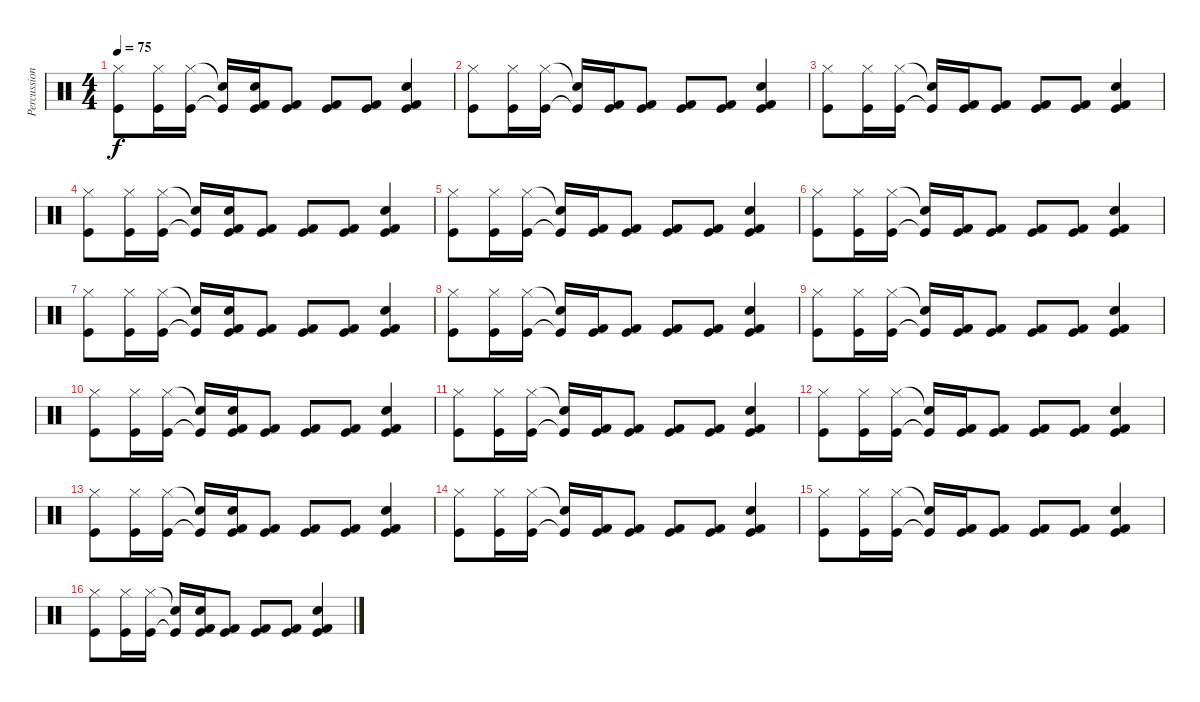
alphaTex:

\track ("Percussion" "Percussion") {instrument percussion}
\staff {score}
\articulation defaults
\ts (4 4)
\tempo 75
\clef neutral
\ks c
("Kick (hit)" "Hi-Hat (closed)").8{dy f} ("Kick (hit)" "Hi-Hat (closed)").16 ("Kick (hit)" "Hi-Hat (closed)").16 ("Kick (hit)"{t} "Snare (hit) 2"{t}).16 ("Kick (hit)" "Kick (hit) 2" "Snare (hit) 2").16 ("Kick (hit)" "Kick (hit) 2").8 ("Kick (hit)" "Kick (hit) 2").8 ("Kick (hit)" "Kick (hit) 2").8 ("Kick (hit)" "Kick (hit) 2" "Snare (hit) 2").4 |
("Kick (hit)" "Hi-Hat (closed)").8 ("Kick (hit)" "Hi-Hat (closed)").16 ("Kick (hit)" "Hi-Hat (closed)").16 ("Kick (hit)"{t} "Snare (hit) 2"{t}).16 ("Kick (hit)" "Kick (hit) 2").16 ("Kick (hit)" "Kick (hit) 2").8 ("Kick (hit)" "Kick (hit) 2").8 ("Kick (hit)" "Kick (hit) 2").8 ("Kick (hit)" "Kick (hit) 2" "Snare (hit) 2").4 |
("Kick (hit)" "Hi-Hat (closed)").8 ("Kick (hit)" "Hi-Hat (closed)").16 ("Kick (hit)" "Hi-Hat (closed)").16 ("Kick (hit)"{t} "Snare (hit) 2"{t}).16 ("Kick (hit)" "Kick (hit) 2").16 ("Kick (hit)" "Kick (hit) 2").8 ("Kick (hit)" "Kick (hit) 2").8 ("Kick (hit)" "Kick (hit) 2").8 ("Kick (hit)" "Kick (hit) 2" "Snare (hit) 2").4 |
("Kick (hit)" "Hi-Hat (closed)").8 ("Kick (hit)" "Hi-Hat (closed)").16 ("Kick (hit)" "Hi-Hat (closed)").16 ("Kick (hit)"{t} "Snare (hit) 2"{t}).16 ("Kick (hit)" "Kick (hit) 2" "Snare (hit) 2").16 ("Kick (hit)" "Kick (hit) 2").8 ("Kick (hit)" "Kick (hit) 2").8 ("Kick (hit)" "Kick (hit) 2").8 ("Kick (hit)" "Kick (hit) 2" "Snare (hit) 2").4 |
("Kick (hit)" "Hi-Hat (closed)").8 ("Kick (hit)" "Hi-Hat (closed)").16 ("Kick (hit)" "Hi-Hat (closed)").16 ("Kick (hit)"{t} "Snare (hit) 2"{t}).16 ("Kick (hit)" "Kick (hit) 2").16 ("Kick (hit)" "Kick (hit) 2").8 ("Kick (hit)" "Kick (hit) 2").8 ("Kick (hit)" "Kick (hit) 2").8 ("Kick (hit)" "Kick (hit) 2" "Snare (hit) 2").4 |
("Kick (hit)" "Hi-Hat (closed)").8 ("Kick (hit)" "Hi-Hat (closed)").16 ("Kick (hit)" "Hi-Hat (closed)").16 ("Kick (hit)"{t} "Snare (hit) 2"{t}).16 ("Kick (hit)" "Kick (hit) 2").16 ("Kick (hit)" "Kick (hit) 2").8 ("Kick (hit)" "Kick (hit) 2").8 ("Kick (hit)" "Kick (hit) 2").8 ("Kick (hit)" "Kick (hit) 2" "Snare (hit) 2").4 |
("Kick (hit)" "Hi-Hat (closed)").8 ("Kick (hit)" "Hi-Hat (closed)").16 ("Kick (hit)" "Hi-Hat (closed)").16 ("Kick (hit)"{t} "Snare (hit) 2"{t}).16 ("Kick (hit)" "Kick (hit) 2" "Snare (hit) 2").16 ("Kick (hit)" "Kick (hit) 2").8 ("Kick (hit)" "Kick (hit) 2").8 ("Kick (hit)" "Kick (hit) 2").8 ("Kick (hit)" "Kick (hit) 2" "Snare (hit) 2").4 |
("Kick (hit)" "Hi-Hat (closed)").8 ("Kick (hit)" "Hi-Hat (closed)").16 ("Kick (hit)" "Hi-Hat (closed)").16 ("Kick (hit)"{t} "Snare (hit) 2"{t}).16 ("Kick (hit)" "Kick (hit) 2").16 ("Kick (hit)" "Kick (hit) 2").8 ("Kick (hit)" "Kick (hit) 2").8 ("Kick (hit)" "Kick (hit) 2").8 ("Kick (hit)" "Kick (hit) 2" "Snare (hit) 2").4 |
("Kick (hit)" "Hi-Hat (closed)").8 ("Kick (hit)" "Hi-Hat (closed)").16 ("Kick (hit)" "Hi-Hat (closed)").16 ("Kick (hit)"{t} "Snare (hit) 2"{t}).16 ("Kick (hit)" "Kick (hit) 2").16 ("Kick (hit)" "Kick (hit) 2").8 ("Kick (hit)" "Kick (hit) 2").8 ("Kick (hit)" "Kick (hit) 2").8 ("Kick (hit)" "Kick (hit) 2" "Snare (hit) 2").4 |
("Kick (hit)" "Hi-Hat (closed)").8 ("Kick (hit)" "Hi-Hat (closed)").16 ("Kick (hit)" "Hi-Hat (closed)").16 ("Kick (hit)"{t} "Snare (hit) 2"{t}).16 ("Kick (hit)" "Kick (hit) 2" "Snare (hit) 2").16 ("Kick (hit)" "Kick (hit) 2").8 ("Kick (hit)" "Kick (hit) 2").8 ("Kick (hit)" "Kick (hit) 2").8 ("Kick (hit)" "Kick (hit) 2" "Snare (hit) 2").4 |
("Kick (hit)" "Hi-Hat (closed)").8 ("Kick (hit)" "Hi-Hat (closed)").16 ("Kick (hit)" "Hi-Hat (closed)").16 ("Kick (hit)"{t} "Snare (hit) 2"{t}).16 ("Kick (hit)" "Kick (hit) 2").16 ("Kick (hit)" "Kick (hit) 2").8 ("Kick (hit)" "Kick (hit) 2").8 ("Kick (hit)" "Kick (hit) 2").8 ("Kick (hit)" "Kick (hit) 2" "Snare (hit) 2").4 |
("Kick (hit)" "Hi-Hat (closed)").8 ("Kick (hit)" "Hi-Hat (closed)").16 ("Kick (hit)" "Hi-Hat (closed)").16 ("Kick (hit)"{t} "Snare (hit) 2"{t}).16 ("Kick (hit)" "Kick (hit) 2").16 ("Kick (hit)" "Kick (hit) 2").8 ("Kick (hit)" "Kick (hit) 2").8 ("Kick (hit)" "Kick (hit) 2").8 ("Kick (hit)" "Kick (hit) 2" "Snare (hit) 2").4 |
("Kick (hit)" "Hi-Hat (closed)").8 ("Kick (hit)" "Hi-Hat (closed)").16 ("Kick (hit)" "Hi-Hat (closed)").16 ("Kick (hit)"{t} "Snare (hit) 2"{t}).16 ("Kick (hit)" "Kick (hit) 2" "Snare (hit) 2").16 ("Kick (hit)" "Kick (hit) 2").8 ("Kick (hit)" "Kick (hit) 2").8 ("Kick (hit)" "Kick (hit) 2").8 ("Kick (hit)" "Kick (hit) 2" "Snare (hit) 2").4 |
("Kick (hit)" "Hi-Hat (closed)").8 ("Kick (hit)" "Hi-Hat (closed)").16 ("Kick (hit)" "Hi-Hat (closed)").16 ("Kick (hit)"{t} "Snare (hit) 2"{t}).16 ("Kick (hit)" "Kick (hit) 2").16 ("Kick (hit)" "Kick (hit) 2").8 ("Kick (hit)" "Kick (hit) 2").8 ("Kick (hit)" "Kick (hit) 2").8 ("Kick (hit)" "Kick (hit) 2" "Snare (hit) 2").4 |
("Kick (hit)" "Hi-Hat (closed)").8 ("Kick (hit)" "Hi-Hat (closed)").16 ("Kick (hit)" "Hi-Hat (closed)").16 ("Kick (hit)"{t} "Snare (hit) 2"{t}).16 ("Kick (hit)" "Kick (hit) 2").16 ("Kick (hit)" "Kick (hit) 2").8 ("Kick (hit)" "Kick (hit) 2").8 ("Kick (hit)" "Kick (hit) 2").8 ("Kick (hit)" "Kick (hit) 2" "Snare (hit) 2").4 |
("Kick (hit)" "Hi-Hat (closed)").8 ("Kick (hit)" "Hi-Hat (closed)").16 ("Kick (hit)" "Hi-Hat (closed)").16 ("Kick (hit)"{t} "Snare (hit) 2"{t}).16 ("Kick (hit)" "Kick (hit) 2" "Snare (hit) 2").16 ("Kick (hit)" "Kick (hit) 2").8 ("Kick (hit)" "Kick (hit) 2").8 ("Kick (hit)" "Kick (hit) 2").8 ("Kick (hit)" "Kick (hit) 2" "Snare (hit) 2").4
